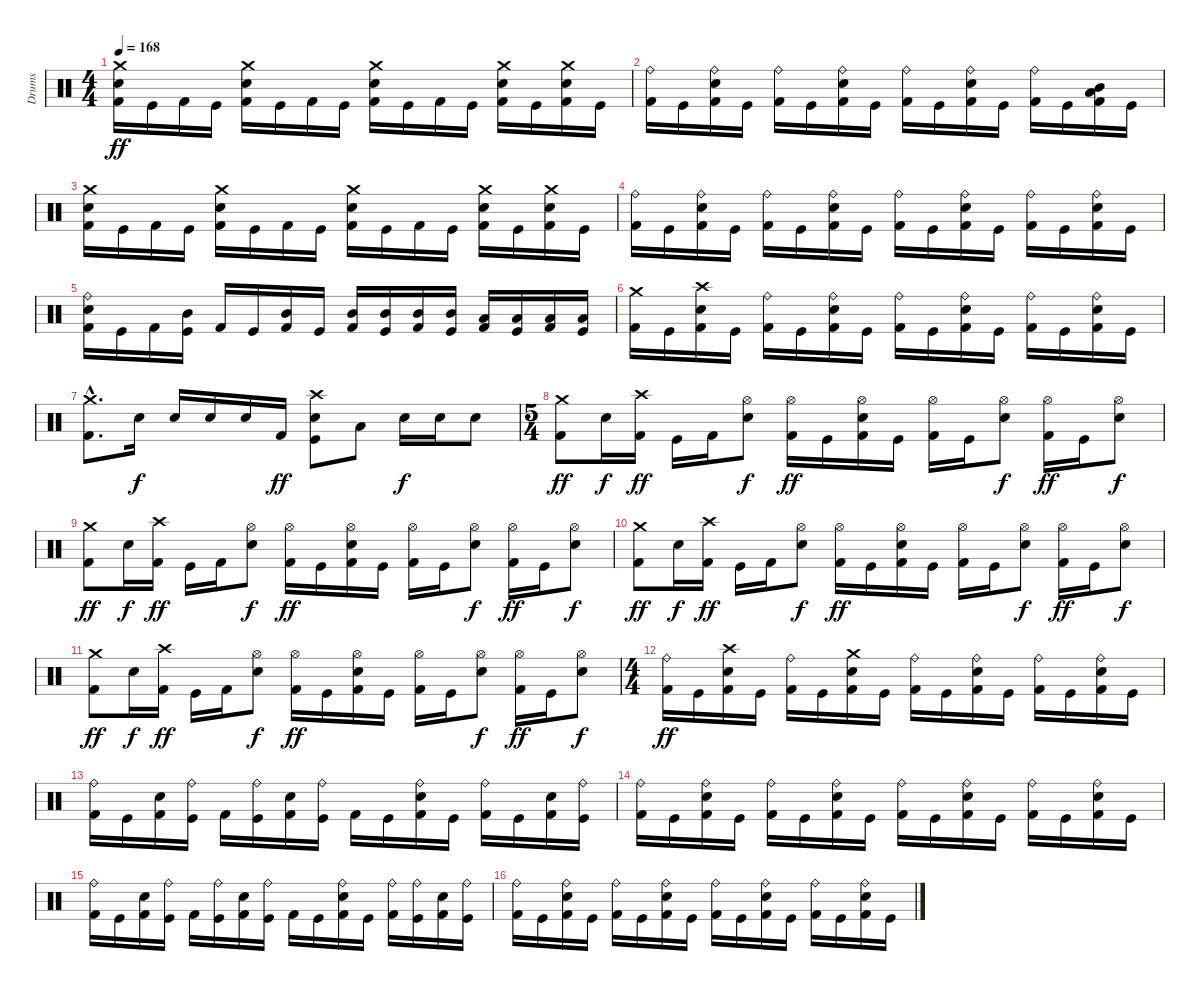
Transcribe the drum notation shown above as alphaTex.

\track ("Drums" "Drums") {instrument percussion}
\staff {score}
\articulation defaults
\ts (4 4)
\tempo 168
\clef neutral
\ks c
("Crash medium (hit)" "Electric Snare (hit)" "Kick (hit) 2").16{dy ff} "Kick (hit)".16 "Kick (hit) 2".16 "Kick (hit)".16 ("Crash medium (hit)" "Electric Snare (hit)" "Kick (hit) 2").16 "Kick (hit)".16 "Kick (hit) 2".16 "Kick (hit)".16 ("Crash medium (hit)" "Electric Snare (hit)" "Kick (hit) 2").16 "Kick (hit)".16 "Kick (hit) 2".16 "Kick (hit)".16 ("Crash medium (hit)" "Electric Snare (hit)" "Kick (hit) 2").16 "Kick (hit)".16 ("Crash medium (hit)" "Electric Snare (hit)" "Kick (hit) 2").16 "Kick (hit)".16 |
("Ride (bell)" "Kick (hit) 2").16 "Kick (hit)".16 ("Ride (bell)" "Electric Snare (hit)" "Kick (hit) 2").16 "Kick (hit)".16 ("Ride (bell)" "Kick (hit) 2").16 "Kick (hit)".16 ("Ride (bell)" "Electric Snare (hit)" "Kick (hit) 2").16 "Kick (hit)".16 ("Ride (bell)" "Kick (hit) 2").16 "Kick (hit)".16 ("Ride (bell)" "Electric Snare (hit)" "Kick (hit) 2").16 "Kick (hit)".16 ("Ride (bell)" "Kick (hit) 2").16 "Kick (hit)".16 ("Low Tom (hit)" "Mid Tom (hit)" "Kick (hit) 2").16 "Kick (hit)".16 |
("Crash medium (hit)" "Electric Snare (hit)" "Kick (hit) 2").16 "Kick (hit)".16 "Kick (hit) 2".16 "Kick (hit)".16 ("Crash medium (hit)" "Electric Snare (hit)" "Kick (hit) 2").16 "Kick (hit)".16 "Kick (hit) 2".16 "Kick (hit)".16 ("Crash medium (hit)" "Electric Snare (hit)" "Kick (hit) 2").16 "Kick (hit)".16 "Kick (hit) 2".16 "Kick (hit)".16 ("Crash medium (hit)" "Electric Snare (hit)" "Kick (hit) 2").16 "Kick (hit)".16 ("Crash medium (hit)" "Electric Snare (hit)" "Kick (hit) 2").16 "Kick (hit)".16 |
("Ride (bell)" "Kick (hit) 2").16 "Kick (hit)".16 ("Ride (bell)" "Electric Snare (hit)" "Kick (hit) 2").16 "Kick (hit)".16 ("Ride (bell)" "Kick (hit) 2").16 "Kick (hit)".16 ("Ride (bell)" "Electric Snare (hit)" "Kick (hit) 2").16 "Kick (hit)".16 ("Ride (bell)" "Kick (hit) 2").16 "Kick (hit)".16 ("Ride (bell)" "Electric Snare (hit)" "Kick (hit) 2").16 "Kick (hit)".16 ("Ride (bell)" "Kick (hit) 2").16 "Kick (hit)".16 ("Ride (bell)" "Electric Snare (hit)" "Kick (hit) 2").16 "Kick (hit)".16 |
("Ride (bell)" "Electric Snare (hit)" "Kick (hit) 2").16 "Kick (hit)".16 "Kick (hit) 2".16 ("Mid Tom (hit)" "Kick (hit)").16 "Kick (hit) 2".16 "Kick (hit)".16 ("Mid Tom (hit)" "Kick (hit) 2").16 "Kick (hit)".16 ("Mid Tom (hit)" "Kick (hit) 2").16 ("Mid Tom (hit)" "Kick (hit)").16 ("Mid Tom (hit)" "Kick (hit) 2").16 ("Mid Tom (hit)" "Kick (hit)").16 ("Low Tom (hit)" "Kick (hit) 2").16 ("Low Tom (hit)" "Kick (hit)").16 ("Low Tom (hit)" "Kick (hit) 2").16 ("Low Tom (hit)" "Kick (hit)").16 |
("Crash medium (hit)" "Kick (hit) 2").16 "Kick (hit)".16 ("Crash high (hit)" "Electric Snare (hit)" "Kick (hit) 2").16 "Kick (hit)".16 ("Ride (bell)" "Kick (hit) 2").16 "Kick (hit)".16 ("Ride (bell)" "Electric Snare (hit)" "Kick (hit) 2").16 "Kick (hit)".16 ("Ride (bell)" "Kick (hit) 2").16 "Kick (hit)".16 ("Ride (bell)" "Electric Snare (hit)" "Kick (hit) 2").16 "Kick (hit)".16 ("Ride (bell)" "Kick (hit) 2").16 "Kick (hit)".16 ("Ride (bell)" "Electric Snare (hit)" "Kick (hit) 2").16 "Kick (hit)".16 |
("Crash medium (hit)"{hac} "Kick (hit) 2"{hac}).8{d} "Electric Snare (hit)".16{dy f} "Electric Snare (hit)".16 "Electric Snare (hit)".16 "Electric Snare (hit)".16 "Kick (hit) 2".16{dy ff} ("Crash high (hit)" "Electric Snare (hit)" "Kick (hit)").8 "Low Tom (hit)".8 "Electric Snare (hit)".16{dy f} "Electric Snare (hit)".16 "Electric Snare (hit)".8 |
\ts (5 4)
("Crash medium (hit)" "Kick (hit) 2").8{dy ff} "Electric Snare (hit)".16{dy f} ("Crash high (hit)" "Kick (hit) 2").16{dy ff} "Kick (hit)".16 "Kick (hit) 2".16 ("Hi-Hat (open)" "Electric Snare (hit)").8{dy f} ("Hi-Hat (open)" "Kick (hit) 2").16{dy ff} "Kick (hit)".16 ("Hi-Hat (open)" "Electric Snare (hit)" "Kick (hit) 2").16 "Kick (hit)".16 ("Hi-Hat (open)" "Kick (hit) 2").16 "Kick (hit)".16 ("Hi-Hat (open)" "Electric Snare (hit)").8{dy f} ("Hi-Hat (open)" "Kick (hit) 2").16{dy ff} "Kick (hit)".16 ("Hi-Hat (open)" "Electric Snare (hit)").8{dy f} |
("Crash medium (hit)" "Kick (hit) 2").8{dy ff} "Electric Snare (hit)".16{dy f} ("Crash high (hit)" "Kick (hit) 2").16{dy ff} "Kick (hit)".16 "Kick (hit) 2".16 ("Hi-Hat (open)" "Electric Snare (hit)").8{dy f} ("Hi-Hat (open)" "Kick (hit) 2").16{dy ff} "Kick (hit)".16 ("Hi-Hat (open)" "Electric Snare (hit)" "Kick (hit) 2").16 "Kick (hit)".16 ("Hi-Hat (open)" "Kick (hit) 2").16 "Kick (hit)".16 ("Hi-Hat (open)" "Electric Snare (hit)").8{dy f} ("Hi-Hat (open)" "Kick (hit) 2").16{dy ff} "Kick (hit)".16 ("Hi-Hat (open)" "Electric Snare (hit)").8{dy f} |
("Crash medium (hit)" "Kick (hit) 2").8{dy ff} "Electric Snare (hit)".16{dy f} ("Crash high (hit)" "Kick (hit) 2").16{dy ff} "Kick (hit)".16 "Kick (hit) 2".16 ("Hi-Hat (open)" "Electric Snare (hit)").8{dy f} ("Hi-Hat (open)" "Kick (hit) 2").16{dy ff} "Kick (hit)".16 ("Hi-Hat (open)" "Electric Snare (hit)" "Kick (hit) 2").16 "Kick (hit)".16 ("Hi-Hat (open)" "Kick (hit) 2").16 "Kick (hit)".16 ("Hi-Hat (open)" "Electric Snare (hit)").8{dy f} ("Hi-Hat (open)" "Kick (hit) 2").16{dy ff} "Kick (hit)".16 ("Hi-Hat (open)" "Electric Snare (hit)").8{dy f} |
("Crash medium (hit)" "Kick (hit) 2").8{dy ff} "Electric Snare (hit)".16{dy f} ("Crash high (hit)" "Kick (hit) 2").16{dy ff} "Kick (hit)".16 "Kick (hit) 2".16 ("Hi-Hat (open)" "Electric Snare (hit)").8{dy f} ("Hi-Hat (open)" "Kick (hit) 2").16{dy ff} "Kick (hit)".16 ("Hi-Hat (open)" "Electric Snare (hit)" "Kick (hit) 2").16 "Kick (hit)".16 ("Hi-Hat (open)" "Kick (hit) 2").16 "Kick (hit)".16 ("Hi-Hat (open)" "Electric Snare (hit)").8{dy f} ("Hi-Hat (open)" "Kick (hit) 2").16{dy ff} "Kick (hit)".16 ("Hi-Hat (open)" "Electric Snare (hit)").8{dy f} |
\ts (4 4)
("Ride (bell)" "Kick (hit) 2").16{dy ff} "Kick (hit)".16 ("Crash high (hit)" "Electric Snare (hit)" "Kick (hit) 2").16 "Kick (hit)".16 ("Ride (bell)" "Kick (hit) 2").16 "Kick (hit)".16 ("Crash medium (hit)" "Electric Snare (hit)" "Kick (hit) 2").16 "Kick (hit)".16 ("Ride (bell)" "Kick (hit) 2").16 "Kick (hit)".16 ("Ride (bell)" "Electric Snare (hit)" "Kick (hit) 2").16 "Kick (hit)".16 ("Ride (bell)" "Kick (hit) 2").16 "Kick (hit)".16 ("Ride (bell)" "Electric Snare (hit)" "Kick (hit) 2").16 "Kick (hit)".16 |
("Ride (bell)" "Kick (hit) 2").16 "Kick (hit)".16 ("Electric Snare (hit)" "Kick (hit) 2").16 ("Ride (bell)" "Kick (hit)").16 "Kick (hit) 2".16 ("Ride (bell)" "Kick (hit)").16 ("Electric Snare (hit)" "Kick (hit) 2").16 ("Ride (bell)" "Kick (hit)").16 "Kick (hit) 2".16 "Kick (hit)".16 ("Ride (bell)" "Electric Snare (hit)" "Kick (hit) 2").16 "Kick (hit)".16 ("Ride (bell)" "Kick (hit) 2").16 "Kick (hit)".16 ("Electric Snare (hit)" "Kick (hit) 2").16 ("Ride (bell)" "Kick (hit)").16 |
("Ride (bell)" "Kick (hit) 2").16 "Kick (hit)".16 ("Ride (bell)" "Electric Snare (hit)" "Kick (hit) 2").16 "Kick (hit)".16 ("Ride (bell)" "Kick (hit) 2").16 "Kick (hit)".16 ("Ride (bell)" "Electric Snare (hit)" "Kick (hit) 2").16 "Kick (hit)".16 ("Ride (bell)" "Kick (hit) 2").16 "Kick (hit)".16 ("Ride (bell)" "Electric Snare (hit)" "Kick (hit) 2").16 "Kick (hit)".16 ("Ride (bell)" "Kick (hit) 2").16 "Kick (hit)".16 ("Ride (bell)" "Electric Snare (hit)" "Kick (hit) 2").16 "Kick (hit)".16 |
("Ride (bell)" "Kick (hit) 2").16 "Kick (hit)".16 ("Electric Snare (hit)" "Kick (hit) 2").16 ("Ride (bell)" "Kick (hit)").16 "Kick (hit) 2".16 ("Ride (bell)" "Kick (hit)").16 ("Electric Snare (hit)" "Kick (hit) 2").16 ("Ride (bell)" "Kick (hit)").16 "Kick (hit) 2".16 "Kick (hit)".16 ("Ride (bell)" "Electric Snare (hit)" "Kick (hit) 2").16 "Kick (hit)".16 ("Ride (bell)" "Kick (hit) 2").16 ("Ride (bell)" "Kick (hit)").16 ("Electric Snare (hit)" "Kick (hit) 2").16 ("Ride (bell)" "Kick (hit)").16 |
("Ride (bell)" "Kick (hit) 2").16 "Kick (hit)".16 ("Ride (bell)" "Electric Snare (hit)" "Kick (hit) 2").16 "Kick (hit)".16 ("Ride (bell)" "Kick (hit) 2").16 "Kick (hit)".16 ("Ride (bell)" "Electric Snare (hit)" "Kick (hit) 2").16 "Kick (hit)".16 ("Ride (bell)" "Kick (hit) 2").16 "Kick (hit)".16 ("Ride (bell)" "Electric Snare (hit)" "Kick (hit) 2").16 "Kick (hit)".16 ("Ride (bell)" "Kick (hit) 2").16 "Kick (hit)".16 ("Ride (bell)" "Electric Snare (hit)" "Kick (hit) 2").16 "Kick (hit)".16
